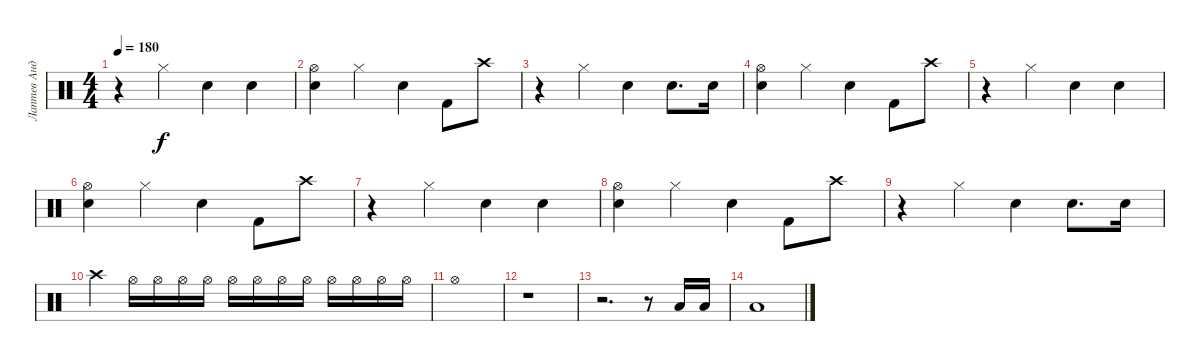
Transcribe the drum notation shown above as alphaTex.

\track ("Лаптев Андрей" "Лаптев Анд") {instrument percussion}
\staff {score}
\articulation defaults
\ts (4 4)
\tempo 180
\clef neutral
\ks c
r.4{dy f} "Hi-Hat (closed)".4 "Snare (hit) 2".4 "Snare (hit) 2".4 |
("Snare (hit) 2" "Hi-Hat (open)").4 "Hi-Hat (closed)".4 "Snare (hit) 2".4 "Kick (hit) 2".8 "Crash high (hit)".8 |
r.4 "Hi-Hat (closed)".4 "Snare (hit) 2".4 "Snare (hit) 2".8{d} "Snare (hit) 2".16 |
("Snare (hit) 2" "Hi-Hat (open)").4 "Hi-Hat (closed)".4 "Snare (hit) 2".4 "Kick (hit) 2".8 "Crash high (hit)".8 |
r.4 "Hi-Hat (closed)".4 "Snare (hit) 2".4 "Snare (hit) 2".4 |
("Snare (hit) 2" "Hi-Hat (open)").4 "Hi-Hat (closed)".4 "Snare (hit) 2".4 "Kick (hit) 2".8 "Crash high (hit)".8 |
r.4 "Hi-Hat (closed)".4 "Snare (hit) 2".4 "Snare (hit) 2".4 |
("Snare (hit) 2" "Hi-Hat (open)").4 "Hi-Hat (closed)".4 "Snare (hit) 2".4 "Kick (hit) 2".8 "Crash high (hit)".8 |
r.4 "Hi-Hat (closed)".4 "Snare (hit) 2".4 "Snare (hit) 2".8{d} "Snare (hit) 2".16 |
"Crash high (hit)".4 "Hi-Hat (open)".16 "Hi-Hat (open)".16 "Hi-Hat (open)".16 "Hi-Hat (open)".16 "Hi-Hat (open)".16 "Hi-Hat (open)".16 "Hi-Hat (open)".16 "Hi-Hat (open)".16 "Hi-Hat (open)".16 "Hi-Hat (open)".16 "Hi-Hat (open)".16 "Hi-Hat (open)".16 |
"Hi-Hat (open)".1 |
r.1 |
r.2{d} r.8 "Low Tom (hit)".16 "Low Tom (hit)".16 |
"Low Tom (hit)".1
